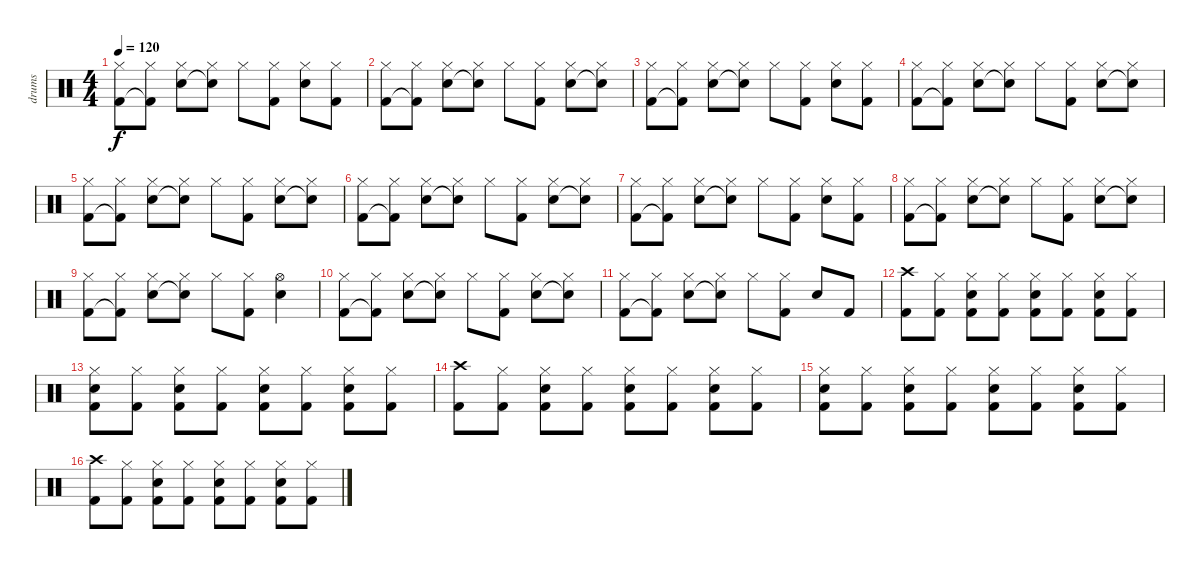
\track ("drums" "drums") {instrument percussion}
\staff {score}
\articulation defaults
\ts (4 4)
\tempo 120
\clef neutral
\ks c
("Hi-Hat (closed)" "Kick (hit) 2").8{dy f} ("Hi-Hat (closed)" "Kick (hit) 2"{t}).8 ("Hi-Hat (closed)" "Snare (hit) 2").8 ("Hi-Hat (closed)" "Snare (hit) 2"{t}).8 "Hi-Hat (closed)".8 ("Hi-Hat (closed)" "Kick (hit) 2").8 ("Hi-Hat (closed)" "Snare (hit) 2").8 ("Hi-Hat (closed)" "Kick (hit) 2").8 |
("Hi-Hat (closed)" "Kick (hit) 2").8 ("Hi-Hat (closed)" "Kick (hit) 2"{t}).8 ("Hi-Hat (closed)" "Snare (hit) 2").8 ("Hi-Hat (closed)" "Snare (hit) 2"{t}).8 "Hi-Hat (closed)".8 ("Hi-Hat (closed)" "Kick (hit) 2").8 ("Hi-Hat (closed)" "Snare (hit) 2").8 ("Hi-Hat (closed)" "Snare (hit) 2"{t}).8 |
("Hi-Hat (closed)" "Kick (hit) 2").8 ("Hi-Hat (closed)" "Kick (hit) 2"{t}).8 ("Hi-Hat (closed)" "Snare (hit) 2").8 ("Hi-Hat (closed)" "Snare (hit) 2"{t}).8 "Hi-Hat (closed)".8 ("Hi-Hat (closed)" "Kick (hit) 2").8 ("Hi-Hat (closed)" "Snare (hit) 2").8 ("Hi-Hat (closed)" "Kick (hit) 2").8 |
("Hi-Hat (closed)" "Kick (hit) 2").8 ("Hi-Hat (closed)" "Kick (hit) 2"{t}).8 ("Hi-Hat (closed)" "Snare (hit) 2").8 ("Hi-Hat (closed)" "Snare (hit) 2"{t}).8 "Hi-Hat (closed)".8 ("Hi-Hat (closed)" "Kick (hit) 2").8 ("Hi-Hat (closed)" "Snare (hit) 2").8 ("Hi-Hat (closed)" "Snare (hit) 2"{t}).8 |
("Hi-Hat (closed)" "Kick (hit) 2").8 ("Hi-Hat (closed)" "Kick (hit) 2"{t}).8 ("Hi-Hat (closed)" "Snare (hit) 2").8 ("Hi-Hat (closed)" "Snare (hit) 2"{t}).8 "Hi-Hat (closed)".8 ("Hi-Hat (closed)" "Kick (hit) 2").8 ("Hi-Hat (closed)" "Snare (hit) 2").8 ("Hi-Hat (closed)" "Snare (hit) 2"{t}).8 |
("Hi-Hat (closed)" "Kick (hit) 2").8 ("Hi-Hat (closed)" "Kick (hit) 2"{t}).8 ("Hi-Hat (closed)" "Snare (hit) 2").8 ("Hi-Hat (closed)" "Snare (hit) 2"{t}).8 "Hi-Hat (closed)".8 ("Hi-Hat (closed)" "Kick (hit) 2").8 ("Hi-Hat (closed)" "Snare (hit) 2").8 ("Hi-Hat (closed)" "Snare (hit) 2"{t}).8 |
("Hi-Hat (closed)" "Kick (hit) 2").8 ("Hi-Hat (closed)" "Kick (hit) 2"{t}).8 ("Hi-Hat (closed)" "Snare (hit) 2").8 ("Hi-Hat (closed)" "Snare (hit) 2"{t}).8 "Hi-Hat (closed)".8 ("Hi-Hat (closed)" "Kick (hit) 2").8 ("Hi-Hat (closed)" "Snare (hit) 2").8 ("Hi-Hat (closed)" "Kick (hit) 2").8 |
("Hi-Hat (closed)" "Kick (hit) 2").8 ("Hi-Hat (closed)" "Kick (hit) 2"{t}).8 ("Hi-Hat (closed)" "Snare (hit) 2").8 ("Hi-Hat (closed)" "Snare (hit) 2"{t}).8 "Hi-Hat (closed)".8 ("Hi-Hat (closed)" "Kick (hit) 2").8 ("Hi-Hat (closed)" "Snare (hit) 2").8 ("Hi-Hat (closed)" "Snare (hit) 2"{t}).8 |
("Hi-Hat (closed)" "Kick (hit) 2").8 ("Hi-Hat (closed)" "Kick (hit) 2"{t}).8 ("Hi-Hat (closed)" "Snare (hit) 2").8 ("Hi-Hat (closed)" "Snare (hit) 2"{t}).8 "Hi-Hat (closed)".8 ("Hi-Hat (closed)" "Kick (hit) 2").8 ("Hi-Hat (open)" "Snare (hit) 2").4 |
("Hi-Hat (closed)" "Kick (hit) 2").8 ("Hi-Hat (closed)" "Kick (hit) 2"{t}).8 ("Hi-Hat (closed)" "Snare (hit) 2").8 ("Hi-Hat (closed)" "Snare (hit) 2"{t}).8 "Hi-Hat (closed)".8 ("Hi-Hat (closed)" "Kick (hit) 2").8 ("Hi-Hat (closed)" "Snare (hit) 2").8 ("Hi-Hat (closed)" "Snare (hit) 2"{t}).8 |
("Hi-Hat (closed)" "Kick (hit) 2").8 ("Hi-Hat (closed)" "Kick (hit) 2"{t}).8 ("Hi-Hat (closed)" "Snare (hit) 2").8 ("Hi-Hat (closed)" "Snare (hit) 2"{t}).8 "Hi-Hat (closed)".8 ("Hi-Hat (closed)" "Kick (hit) 2").8 "Snare (hit) 2".8 "Kick (hit) 2".8 |
("Crash high (hit)" "Kick (hit) 2").8 ("Hi-Hat (closed)" "Kick (hit) 2").8 ("Hi-Hat (closed)" "Snare (hit) 2" "Kick (hit) 2").8 ("Hi-Hat (closed)" "Kick (hit) 2").8 ("Hi-Hat (closed)" "Snare (hit) 2" "Kick (hit) 2").8 ("Hi-Hat (closed)" "Kick (hit) 2").8 ("Hi-Hat (closed)" "Snare (hit) 2" "Kick (hit) 2").8 ("Hi-Hat (closed)" "Kick (hit) 2").8 |
("Hi-Hat (closed)" "Snare (hit) 2" "Kick (hit) 2").8 ("Hi-Hat (closed)" "Kick (hit) 2").8 ("Hi-Hat (closed)" "Snare (hit) 2" "Kick (hit) 2").8 ("Hi-Hat (closed)" "Kick (hit) 2").8 ("Hi-Hat (closed)" "Snare (hit) 2" "Kick (hit) 2").8 ("Hi-Hat (closed)" "Kick (hit) 2").8 ("Hi-Hat (closed)" "Snare (hit) 2" "Kick (hit) 2").8 ("Hi-Hat (closed)" "Kick (hit) 2").8 |
("Crash high (hit)" "Kick (hit) 2").8 ("Hi-Hat (closed)" "Kick (hit) 2").8 ("Hi-Hat (closed)" "Snare (hit) 2" "Kick (hit) 2").8 ("Hi-Hat (closed)" "Kick (hit) 2").8 ("Hi-Hat (closed)" "Snare (hit) 2" "Kick (hit) 2").8 ("Hi-Hat (closed)" "Kick (hit) 2").8 ("Hi-Hat (closed)" "Snare (hit) 2" "Kick (hit) 2").8 ("Hi-Hat (closed)" "Kick (hit) 2").8 |
("Hi-Hat (closed)" "Snare (hit) 2" "Kick (hit) 2").8 ("Hi-Hat (closed)" "Kick (hit) 2").8 ("Hi-Hat (closed)" "Snare (hit) 2" "Kick (hit) 2").8 ("Hi-Hat (closed)" "Kick (hit) 2").8 ("Hi-Hat (closed)" "Snare (hit) 2" "Kick (hit) 2").8 ("Hi-Hat (closed)" "Kick (hit) 2").8 ("Hi-Hat (closed)" "Snare (hit) 2" "Kick (hit) 2").8 ("Hi-Hat (closed)" "Kick (hit) 2").8 |
("Crash high (hit)" "Kick (hit) 2").8 ("Hi-Hat (closed)" "Kick (hit) 2").8 ("Hi-Hat (closed)" "Snare (hit) 2" "Kick (hit) 2").8 ("Hi-Hat (closed)" "Kick (hit) 2").8 ("Hi-Hat (closed)" "Snare (hit) 2" "Kick (hit) 2").8 ("Hi-Hat (closed)" "Kick (hit) 2").8 ("Hi-Hat (closed)" "Snare (hit) 2" "Kick (hit) 2").8 ("Hi-Hat (closed)" "Kick (hit) 2").8
